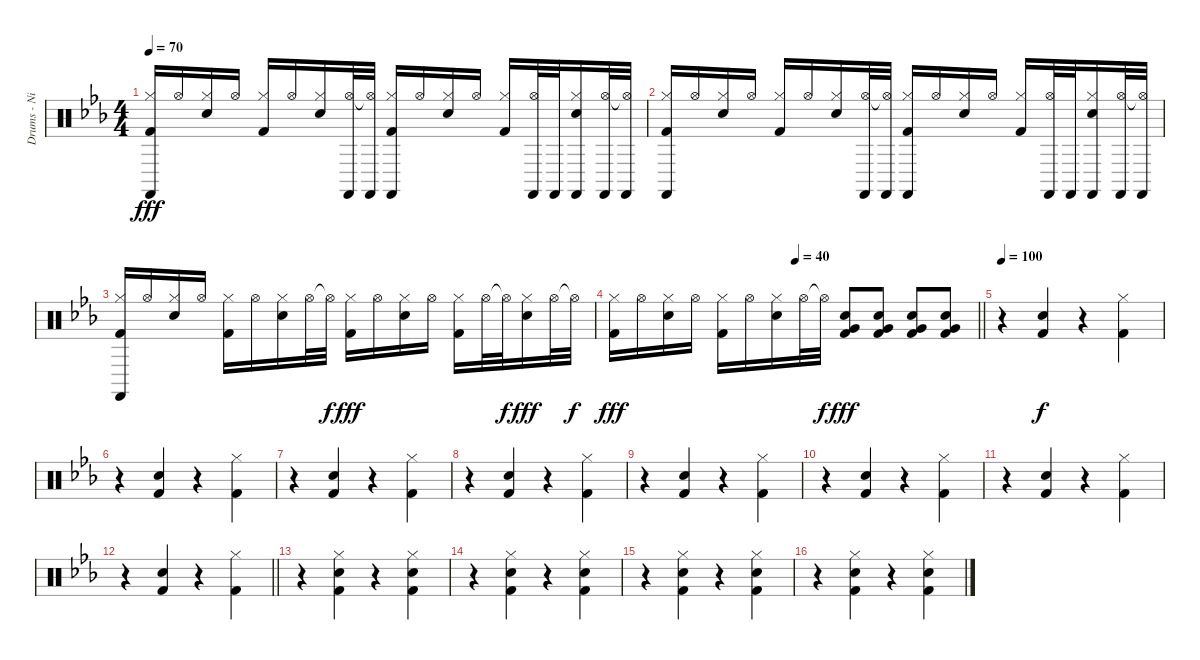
\track ("Drums - Nigel Olsen" "Drums - Ni") {instrument percussion}
\staff {score}
\articulation defaults
\ts (4 4)
\tempo 70
\clef neutral
\ks cminor
("Castanets (hit)" "Hi-Hat (closed)" "Kick (hit) 2").16{dy fff} "Hi-Hat (open)".16 ("Hi-Hat (closed)" "Snare (hit) 2").16 "Hi-Hat (open)".16 ("Hi-Hat (closed)" "Kick (hit) 2").16 "Hi-Hat (open)".16 ("Hi-Hat (closed)" "Snare (hit) 2").16 ("Castanets (hit)" "Hi-Hat (open)").32 ("Castanets (hit)" "Hi-Hat (open)"{t}).32 ("Castanets (hit)" "Hi-Hat (closed)" "Kick (hit) 2").16 "Hi-Hat (open)".16 ("Hi-Hat (closed)" "Snare (hit) 2").16 "Hi-Hat (open)".16 ("Hi-Hat (closed)" "Kick (hit) 2").16 ("Castanets (hit)" "Hi-Hat (open)").32 "Castanets (hit)".32 ("Castanets (hit)" "Hi-Hat (closed)" "Snare (hit) 2").16 ("Castanets (hit)" "Hi-Hat (open)").32 ("Castanets (hit)" "Hi-Hat (open)"{t}).32 |
("Castanets (hit)" "Hi-Hat (closed)" "Kick (hit) 2").16 "Hi-Hat (open)".16 ("Hi-Hat (closed)" "Snare (hit) 2").16 "Hi-Hat (open)".16 ("Hi-Hat (closed)" "Kick (hit) 2").16 "Hi-Hat (open)".16 ("Hi-Hat (closed)" "Snare (hit) 2").16 ("Castanets (hit)" "Hi-Hat (open)").32 ("Castanets (hit)" "Hi-Hat (open)"{t}).32 ("Castanets (hit)" "Hi-Hat (closed)" "Kick (hit) 2").16 "Hi-Hat (open)".16 ("Hi-Hat (closed)" "Snare (hit) 2").16 "Hi-Hat (open)".16 ("Hi-Hat (closed)" "Kick (hit) 2").16 ("Castanets (hit)" "Hi-Hat (open)").32 "Castanets (hit)".32 ("Castanets (hit)" "Hi-Hat (closed)" "Snare (hit) 2").16 ("Castanets (hit)" "Hi-Hat (open)").32 ("Castanets (hit)" "Hi-Hat (open)"{t}).32 |
("Castanets (hit)" "Hi-Hat (closed)" "Kick (hit) 2").16 "Hi-Hat (open)".16 ("Hi-Hat (closed)" "Snare (hit) 2").16 "Hi-Hat (open)".16 ("Hi-Hat (closed)" "Kick (hit) 2").16 "Hi-Hat (open)".16 ("Hi-Hat (closed)" "Snare (hit) 2").16 "Hi-Hat (open)".32 "Hi-Hat (open)"{t}.32{dy f} ("Hi-Hat (closed)" "Kick (hit) 2").16{dy fff} "Hi-Hat (open)".16 ("Hi-Hat (closed)" "Snare (hit) 2").16 "Hi-Hat (open)".16 ("Hi-Hat (closed)" "Kick (hit) 2").16 "Hi-Hat (open)".32 "Hi-Hat (open)"{t}.32{dy f} ("Hi-Hat (closed)" "Snare (hit) 2").16{dy fff} "Hi-Hat (open)".32 "Hi-Hat (open)"{t}.32{dy f} |
\tempo (40 0.5)
\barLineRight lightlight
("Hi-Hat (closed)" "Kick (hit) 2").16{dy fff} "Hi-Hat (open)".16 ("Hi-Hat (closed)" "Snare (hit) 2").16 "Hi-Hat (open)".16 ("Hi-Hat (closed)" "Kick (hit) 2").16 "Hi-Hat (open)".16 ("Hi-Hat (closed)" "Snare (hit) 2").16 "Hi-Hat (open)".32 "Hi-Hat (open)"{t}.32{dy f} ("Very Low Tom (hit)" "Snare (hit) 2" "Kick (hit) 2").8{dy fff} ("Very Low Tom (hit)" "Snare (hit) 2" "Kick (hit) 2").8 ("Very Low Tom (hit)" "Snare (hit) 2" "Kick (hit) 2").8 ("Very Low Tom (hit)" "Snare (hit) 2" "Kick (hit) 2").8 |
\tempo 100
r.4 ("Snare (hit) 2" "Kick (hit) 2").4{dy f} r.4 ("Hi-Hat (closed)" "Kick (hit) 2").4 |
r.4 ("Snare (hit) 2" "Kick (hit) 2").4 r.4 ("Hi-Hat (closed)" "Kick (hit) 2").4 |
r.4 ("Snare (hit) 2" "Kick (hit) 2").4 r.4 ("Hi-Hat (closed)" "Kick (hit) 2").4 |
r.4 ("Snare (hit) 2" "Kick (hit) 2").4 r.4 ("Hi-Hat (closed)" "Kick (hit) 2").4 |
r.4 ("Snare (hit) 2" "Kick (hit) 2").4 r.4 ("Hi-Hat (closed)" "Kick (hit) 2").4 |
r.4 ("Snare (hit) 2" "Kick (hit) 2").4 r.4 ("Hi-Hat (closed)" "Kick (hit) 2").4 |
r.4 ("Snare (hit) 2" "Kick (hit) 2").4 r.4 ("Hi-Hat (closed)" "Kick (hit) 2").4 |
\barLineRight lightlight
r.4 ("Snare (hit) 2" "Kick (hit) 2").4 r.4 ("Hi-Hat (closed)" "Kick (hit) 2").4 |
r.4 ("Hi-Hat (closed)" "Snare (hit) 2" "Kick (hit) 2").4 r.4 ("Hi-Hat (closed)" "Snare (hit) 2" "Kick (hit) 2").4 |
r.4 ("Hi-Hat (closed)" "Snare (hit) 2" "Kick (hit) 2").4 r.4 ("Hi-Hat (closed)" "Snare (hit) 2" "Kick (hit) 2").4 |
r.4 ("Hi-Hat (closed)" "Snare (hit) 2" "Kick (hit) 2").4 r.4 ("Hi-Hat (closed)" "Snare (hit) 2" "Kick (hit) 2").4 |
r.4 ("Hi-Hat (closed)" "Snare (hit) 2" "Kick (hit) 2").4 r.4 ("Hi-Hat (closed)" "Snare (hit) 2" "Kick (hit) 2").4
